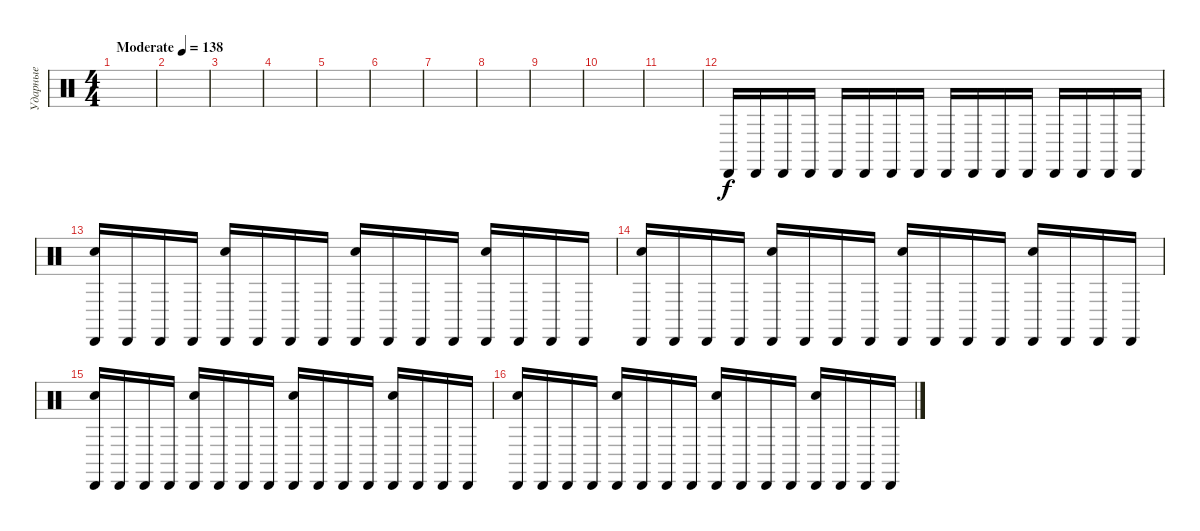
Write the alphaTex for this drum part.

\track ("Ударные" "Ударные") {instrument percussion}
\staff {score}
\articulation defaults
\ts (4 4)
\tempo (138 "Moderate")
\clef neutral
\ks c
|
|
|
|
|
|
|
|
|
|
|
"Cabasa (hit)".16 "Cabasa (hit)".16 "Cabasa (hit)".16 "Cabasa (hit)".16 "Cabasa (hit)".16 "Cabasa (hit)".16 "Cabasa (hit)".16 "Cabasa (hit)".16 "Cabasa (hit)".16 "Cabasa (hit)".16 "Cabasa (hit)".16 "Cabasa (hit)".16 "Cabasa (hit)".16 "Cabasa (hit)".16 "Cabasa (hit)".16 "Cabasa (hit)".16 |
("Cabasa (hit)" "Hand Clap (hit)").16 "Cabasa (hit)".16 "Cabasa (hit)".16 "Cabasa (hit)".16 ("Cabasa (hit)" "Hand Clap (hit)").16 "Cabasa (hit)".16 "Cabasa (hit)".16 "Cabasa (hit)".16 ("Cabasa (hit)" "Hand Clap (hit)").16 "Cabasa (hit)".16 "Cabasa (hit)".16 "Cabasa (hit)".16 ("Cabasa (hit)" "Hand Clap (hit)").16 "Cabasa (hit)".16 "Cabasa (hit)".16 "Cabasa (hit)".16 |
("Cabasa (hit)" "Hand Clap (hit)").16 "Cabasa (hit)".16 "Cabasa (hit)".16 "Cabasa (hit)".16 ("Cabasa (hit)" "Hand Clap (hit)").16 "Cabasa (hit)".16 "Cabasa (hit)".16 "Cabasa (hit)".16 ("Cabasa (hit)" "Hand Clap (hit)").16 "Cabasa (hit)".16 "Cabasa (hit)".16 "Cabasa (hit)".16 ("Cabasa (hit)" "Hand Clap (hit)").16 "Cabasa (hit)".16 "Cabasa (hit)".16 "Cabasa (hit)".16 |
("Cabasa (hit)" "Hand Clap (hit)").16 "Cabasa (hit)".16 "Cabasa (hit)".16 "Cabasa (hit)".16 ("Cabasa (hit)" "Hand Clap (hit)").16 "Cabasa (hit)".16 "Cabasa (hit)".16 "Cabasa (hit)".16 ("Cabasa (hit)" "Hand Clap (hit)").16 "Cabasa (hit)".16 "Cabasa (hit)".16 "Cabasa (hit)".16 ("Cabasa (hit)" "Hand Clap (hit)").16 "Cabasa (hit)".16 "Cabasa (hit)".16 "Cabasa (hit)".16 |
("Cabasa (hit)" "Hand Clap (hit)").16 "Cabasa (hit)".16 "Cabasa (hit)".16 "Cabasa (hit)".16 ("Cabasa (hit)" "Hand Clap (hit)").16 "Cabasa (hit)".16 "Cabasa (hit)".16 "Cabasa (hit)".16 ("Cabasa (hit)" "Hand Clap (hit)").16 "Cabasa (hit)".16 "Cabasa (hit)".16 "Cabasa (hit)".16 ("Cabasa (hit)" "Hand Clap (hit)").16 "Cabasa (hit)".16 "Cabasa (hit)".16 "Cabasa (hit)".16
